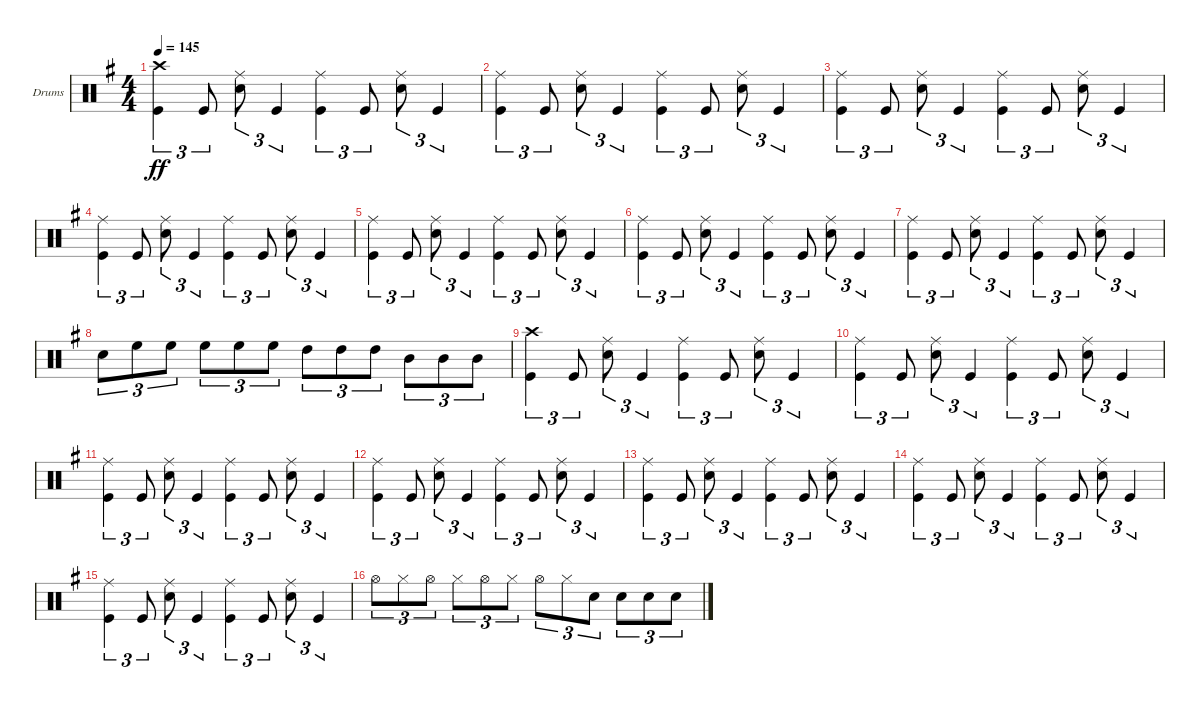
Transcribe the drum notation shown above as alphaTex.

\bracketExtendMode groupsimilarinstruments
\firstSystemTrackNameOrientation horizontal
\otherSystemsTrackNameOrientation horizontal
\track ("Александр Манякин" "Drums") {instrument percussion}
\staff {score}
\articulation defaults
\ts (4 4)
\tempo 145
\clef neutral
\ks eminor
("Crash high (hit)" "Kick (hit)").4{tu (3 2) dy ff} "Kick (hit)".8{tu (3 2)} ("Ride (middle)" "Snare (hit) 2").8{tu (3 2)} "Kick (hit)".4{tu (3 2)} ("Ride (middle)" "Kick (hit)").4{tu (3 2)} "Kick (hit)".8{tu (3 2)} ("Ride (middle)" "Snare (hit) 2").8{tu (3 2)} "Kick (hit)".4{tu (3 2)} |
("Ride (middle)" "Kick (hit)").4{tu (3 2)} "Kick (hit)".8{tu (3 2)} ("Ride (middle)" "Snare (hit) 2").8{tu (3 2)} "Kick (hit)".4{tu (3 2)} ("Ride (middle)" "Kick (hit)").4{tu (3 2)} "Kick (hit)".8{tu (3 2)} ("Ride (middle)" "Snare (hit) 2").8{tu (3 2)} "Kick (hit)".4{tu (3 2)} |
("Ride (middle)" "Kick (hit)").4{tu (3 2)} "Kick (hit)".8{tu (3 2)} ("Ride (middle)" "Snare (hit) 2").8{tu (3 2)} "Kick (hit)".4{tu (3 2)} ("Ride (middle)" "Kick (hit)").4{tu (3 2)} "Kick (hit)".8{tu (3 2)} ("Ride (middle)" "Snare (hit) 2").8{tu (3 2)} "Kick (hit)".4{tu (3 2)} |
("Ride (middle)" "Kick (hit)").4{tu (3 2)} "Kick (hit)".8{tu (3 2)} ("Ride (middle)" "Snare (hit) 2").8{tu (3 2)} "Kick (hit)".4{tu (3 2)} ("Ride (middle)" "Kick (hit)").4{tu (3 2)} "Kick (hit)".8{tu (3 2)} ("Ride (middle)" "Snare (hit) 2").8{tu (3 2)} "Kick (hit)".4{tu (3 2)} |
("Ride (middle)" "Kick (hit)").4{tu (3 2)} "Kick (hit)".8{tu (3 2)} ("Ride (middle)" "Snare (hit) 2").8{tu (3 2)} "Kick (hit)".4{tu (3 2)} ("Ride (middle)" "Kick (hit)").4{tu (3 2)} "Kick (hit)".8{tu (3 2)} ("Ride (middle)" "Snare (hit) 2").8{tu (3 2)} "Kick (hit)".4{tu (3 2)} |
("Ride (middle)" "Kick (hit)").4{tu (3 2)} "Kick (hit)".8{tu (3 2)} ("Ride (middle)" "Snare (hit) 2").8{tu (3 2)} "Kick (hit)".4{tu (3 2)} ("Ride (middle)" "Kick (hit)").4{tu (3 2)} "Kick (hit)".8{tu (3 2)} ("Ride (middle)" "Snare (hit) 2").8{tu (3 2)} "Kick (hit)".4{tu (3 2)} |
("Ride (middle)" "Kick (hit)").4{tu (3 2)} "Kick (hit)".8{tu (3 2)} ("Ride (middle)" "Snare (hit) 2").8{tu (3 2)} "Kick (hit)".4{tu (3 2)} ("Ride (middle)" "Kick (hit)").4{tu (3 2)} "Kick (hit)".8{tu (3 2)} ("Ride (middle)" "Snare (hit) 2").8{tu (3 2)} "Kick (hit)".4{tu (3 2)} |
"Snare (hit) 2".8{tu (3 2)} "High Floor Tom (hit)".8{tu (3 2)} "High Floor Tom (hit)".8{tu (3 2)} "High Floor Tom (hit)".8{tu (3 2)} "High Floor Tom (hit)".8{tu (3 2)} "High Floor Tom (hit)".8{tu (3 2)} "High Tom (hit)".8{tu (3 2)} "High Tom (hit)".8{tu (3 2)} "High Tom (hit)".8{tu (3 2)} "Mid Tom (hit)".8{tu (3 2)} "Mid Tom (hit)".8{tu (3 2)} "Mid Tom (hit)".8{tu (3 2)} |
("Crash high (hit)" "Kick (hit)").4{tu (3 2)} "Kick (hit)".8{tu (3 2)} ("Ride (middle)" "Snare (hit) 2").8{tu (3 2)} "Kick (hit)".4{tu (3 2)} ("Ride (middle)" "Kick (hit)").4{tu (3 2)} "Kick (hit)".8{tu (3 2)} ("Ride (middle)" "Snare (hit) 2").8{tu (3 2)} "Kick (hit)".4{tu (3 2)} |
("Ride (middle)" "Kick (hit)").4{tu (3 2)} "Kick (hit)".8{tu (3 2)} ("Ride (middle)" "Snare (hit) 2").8{tu (3 2)} "Kick (hit)".4{tu (3 2)} ("Ride (middle)" "Kick (hit)").4{tu (3 2)} "Kick (hit)".8{tu (3 2)} ("Ride (middle)" "Snare (hit) 2").8{tu (3 2)} "Kick (hit)".4{tu (3 2)} |
("Ride (middle)" "Kick (hit)").4{tu (3 2)} "Kick (hit)".8{tu (3 2)} ("Ride (middle)" "Snare (hit) 2").8{tu (3 2)} "Kick (hit)".4{tu (3 2)} ("Ride (middle)" "Kick (hit)").4{tu (3 2)} "Kick (hit)".8{tu (3 2)} ("Ride (middle)" "Snare (hit) 2").8{tu (3 2)} "Kick (hit)".4{tu (3 2)} |
("Ride (middle)" "Kick (hit)").4{tu (3 2)} "Kick (hit)".8{tu (3 2)} ("Ride (middle)" "Snare (hit) 2").8{tu (3 2)} "Kick (hit)".4{tu (3 2)} ("Ride (middle)" "Kick (hit)").4{tu (3 2)} "Kick (hit)".8{tu (3 2)} ("Ride (middle)" "Snare (hit) 2").8{tu (3 2)} "Kick (hit)".4{tu (3 2)} |
("Ride (middle)" "Kick (hit)").4{tu (3 2)} "Kick (hit)".8{tu (3 2)} ("Ride (middle)" "Snare (hit) 2").8{tu (3 2)} "Kick (hit)".4{tu (3 2)} ("Ride (middle)" "Kick (hit)").4{tu (3 2)} "Kick (hit)".8{tu (3 2)} ("Ride (middle)" "Snare (hit) 2").8{tu (3 2)} "Kick (hit)".4{tu (3 2)} |
("Ride (middle)" "Kick (hit)").4{tu (3 2)} "Kick (hit)".8{tu (3 2)} ("Ride (middle)" "Snare (hit) 2").8{tu (3 2)} "Kick (hit)".4{tu (3 2)} ("Ride (middle)" "Kick (hit)").4{tu (3 2)} "Kick (hit)".8{tu (3 2)} ("Ride (middle)" "Snare (hit) 2").8{tu (3 2)} "Kick (hit)".4{tu (3 2)} |
("Ride (middle)" "Kick (hit)").4{tu (3 2)} "Kick (hit)".8{tu (3 2)} ("Ride (middle)" "Snare (hit) 2").8{tu (3 2)} "Kick (hit)".4{tu (3 2)} ("Ride (middle)" "Kick (hit)").4{tu (3 2)} "Kick (hit)".8{tu (3 2)} ("Ride (middle)" "Snare (hit) 2").8{tu (3 2)} "Kick (hit)".4{tu (3 2)} |
"Hi-Hat (open)".8{tu (3 2)} "Hi-Hat (closed)".8{tu (3 2)} "Hi-Hat (open)".8{tu (3 2)} "Hi-Hat (closed)".8{tu (3 2)} "Hi-Hat (open)".8{tu (3 2)} "Hi-Hat (closed)".8{tu (3 2)} "Hi-Hat (open)".8{tu (3 2)} "Hi-Hat (closed)".8{tu (3 2)} "Snare (hit) 2".8{tu (3 2)} "Snare (hit) 2".8{tu (3 2)} "Snare (hit) 2".8{tu (3 2)} "Snare (hit) 2".8{tu (3 2)}
